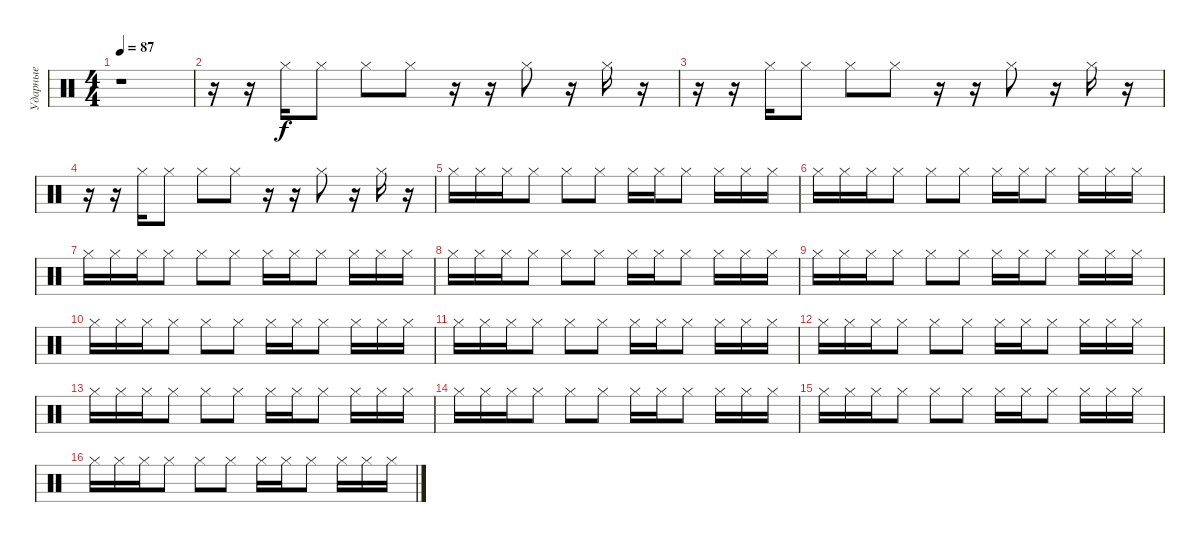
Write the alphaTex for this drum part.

\track ("Ударные" "Ударные") {instrument percussion}
\staff {score}
\articulation defaults
\ts (4 4)
\tempo 87
\clef neutral
\ks c
r.1{dy f} |
r.16 r.16 "Hi-Hat (closed)".16 "Hi-Hat (closed)".8 "Hi-Hat (closed)".8 "Hi-Hat (closed)".8 r.16 r.16 "Hi-Hat (closed)".8 r.16 "Hi-Hat (closed)".16 r.16 |
r.16 r.16 "Hi-Hat (closed)".16 "Hi-Hat (closed)".8 "Hi-Hat (closed)".8 "Hi-Hat (closed)".8 r.16 r.16 "Hi-Hat (closed)".8 r.16 "Hi-Hat (closed)".16 r.16 |
r.16 r.16 "Hi-Hat (closed)".16 "Hi-Hat (closed)".8 "Hi-Hat (closed)".8 "Hi-Hat (closed)".8 r.16 r.16 "Hi-Hat (closed)".8 r.16 "Hi-Hat (closed)".16 r.16 |
"Hi-Hat (closed)".16 "Hi-Hat (closed)".16 "Hi-Hat (closed)".16 "Hi-Hat (closed)".8 "Hi-Hat (closed)".8 "Hi-Hat (closed)".8 "Hi-Hat (closed)".16 "Hi-Hat (closed)".16 "Hi-Hat (closed)".8 "Hi-Hat (closed)".16 "Hi-Hat (closed)".16 "Hi-Hat (closed)".16 |
"Hi-Hat (closed)".16 "Hi-Hat (closed)".16 "Hi-Hat (closed)".16 "Hi-Hat (closed)".8 "Hi-Hat (closed)".8 "Hi-Hat (closed)".8 "Hi-Hat (closed)".16 "Hi-Hat (closed)".16 "Hi-Hat (closed)".8 "Hi-Hat (closed)".16 "Hi-Hat (closed)".16 "Hi-Hat (closed)".16 |
"Hi-Hat (closed)".16 "Hi-Hat (closed)".16 "Hi-Hat (closed)".16 "Hi-Hat (closed)".8 "Hi-Hat (closed)".8 "Hi-Hat (closed)".8 "Hi-Hat (closed)".16 "Hi-Hat (closed)".16 "Hi-Hat (closed)".8 "Hi-Hat (closed)".16 "Hi-Hat (closed)".16 "Hi-Hat (closed)".16 |
"Hi-Hat (closed)".16 "Hi-Hat (closed)".16 "Hi-Hat (closed)".16 "Hi-Hat (closed)".8 "Hi-Hat (closed)".8 "Hi-Hat (closed)".8 "Hi-Hat (closed)".16 "Hi-Hat (closed)".16 "Hi-Hat (closed)".8 "Hi-Hat (closed)".16 "Hi-Hat (closed)".16 "Hi-Hat (closed)".16 |
"Hi-Hat (closed)".16 "Hi-Hat (closed)".16 "Hi-Hat (closed)".16 "Hi-Hat (closed)".8 "Hi-Hat (closed)".8 "Hi-Hat (closed)".8 "Hi-Hat (closed)".16 "Hi-Hat (closed)".16 "Hi-Hat (closed)".8 "Hi-Hat (closed)".16 "Hi-Hat (closed)".16 "Hi-Hat (closed)".16 |
"Hi-Hat (closed)".16 "Hi-Hat (closed)".16 "Hi-Hat (closed)".16 "Hi-Hat (closed)".8 "Hi-Hat (closed)".8 "Hi-Hat (closed)".8 "Hi-Hat (closed)".16 "Hi-Hat (closed)".16 "Hi-Hat (closed)".8 "Hi-Hat (closed)".16 "Hi-Hat (closed)".16 "Hi-Hat (closed)".16 |
"Hi-Hat (closed)".16 "Hi-Hat (closed)".16 "Hi-Hat (closed)".16 "Hi-Hat (closed)".8 "Hi-Hat (closed)".8 "Hi-Hat (closed)".8 "Hi-Hat (closed)".16 "Hi-Hat (closed)".16 "Hi-Hat (closed)".8 "Hi-Hat (closed)".16 "Hi-Hat (closed)".16 "Hi-Hat (closed)".16 |
"Hi-Hat (closed)".16 "Hi-Hat (closed)".16 "Hi-Hat (closed)".16 "Hi-Hat (closed)".8 "Hi-Hat (closed)".8 "Hi-Hat (closed)".8 "Hi-Hat (closed)".16 "Hi-Hat (closed)".16 "Hi-Hat (closed)".8 "Hi-Hat (closed)".16 "Hi-Hat (closed)".16 "Hi-Hat (closed)".16 |
"Hi-Hat (closed)".16 "Hi-Hat (closed)".16 "Hi-Hat (closed)".16 "Hi-Hat (closed)".8 "Hi-Hat (closed)".8 "Hi-Hat (closed)".8 "Hi-Hat (closed)".16 "Hi-Hat (closed)".16 "Hi-Hat (closed)".8 "Hi-Hat (closed)".16 "Hi-Hat (closed)".16 "Hi-Hat (closed)".16 |
"Hi-Hat (closed)".16 "Hi-Hat (closed)".16 "Hi-Hat (closed)".16 "Hi-Hat (closed)".8 "Hi-Hat (closed)".8 "Hi-Hat (closed)".8 "Hi-Hat (closed)".16 "Hi-Hat (closed)".16 "Hi-Hat (closed)".8 "Hi-Hat (closed)".16 "Hi-Hat (closed)".16 "Hi-Hat (closed)".16 |
"Hi-Hat (closed)".16 "Hi-Hat (closed)".16 "Hi-Hat (closed)".16 "Hi-Hat (closed)".8 "Hi-Hat (closed)".8 "Hi-Hat (closed)".8 "Hi-Hat (closed)".16 "Hi-Hat (closed)".16 "Hi-Hat (closed)".8 "Hi-Hat (closed)".16 "Hi-Hat (closed)".16 "Hi-Hat (closed)".16 |
"Hi-Hat (closed)".16 "Hi-Hat (closed)".16 "Hi-Hat (closed)".16 "Hi-Hat (closed)".8 "Hi-Hat (closed)".8 "Hi-Hat (closed)".8 "Hi-Hat (closed)".16 "Hi-Hat (closed)".16 "Hi-Hat (closed)".8 "Hi-Hat (closed)".16 "Hi-Hat (closed)".16 "Hi-Hat (closed)".16
